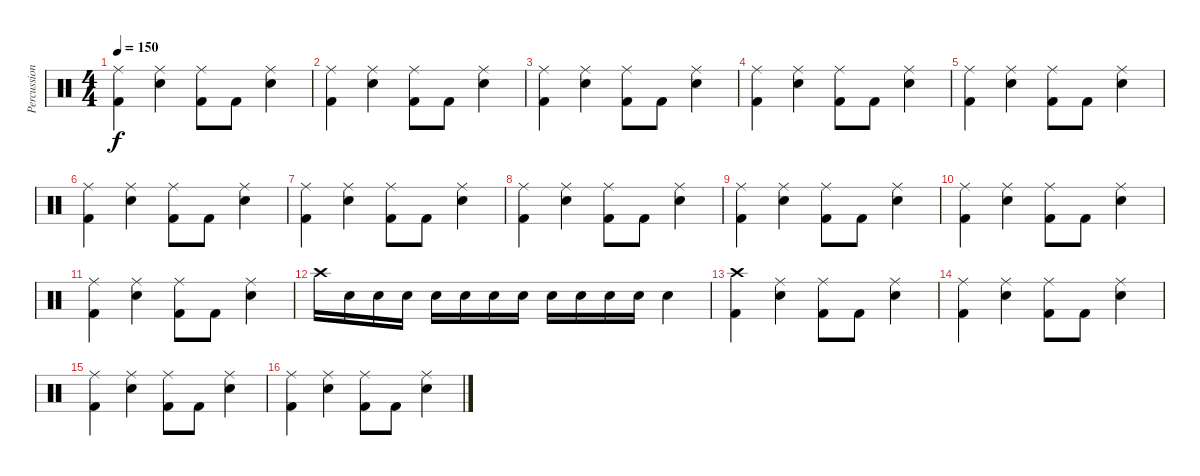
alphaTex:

\track ("Percussions" "Percussion") {instrument percussion}
\staff {score}
\articulation defaults
\ts (4 4)
\tempo 150
\clef neutral
\ks c
("Ride (middle)" "Kick (hit) 2").4{dy f} ("Ride (middle)" "Electric Snare (hit)").4 ("Ride (middle)" "Kick (hit) 2").8 "Kick (hit) 2".8 ("Ride (middle)" "Electric Snare (hit)").4 |
("Ride (middle)" "Kick (hit) 2").4 ("Ride (middle)" "Electric Snare (hit)").4 ("Ride (middle)" "Kick (hit) 2").8 "Kick (hit) 2".8 ("Ride (middle)" "Electric Snare (hit)").4 |
("Ride (middle)" "Kick (hit) 2").4 ("Ride (middle)" "Electric Snare (hit)").4 ("Ride (middle)" "Kick (hit) 2").8 "Kick (hit) 2".8 ("Ride (middle)" "Electric Snare (hit)").4 |
("Ride (middle)" "Kick (hit) 2").4 ("Ride (middle)" "Electric Snare (hit)").4 ("Ride (middle)" "Kick (hit) 2").8 "Kick (hit) 2".8 ("Ride (middle)" "Electric Snare (hit)").4 |
("Ride (middle)" "Kick (hit) 2").4 ("Ride (middle)" "Electric Snare (hit)").4 ("Ride (middle)" "Kick (hit) 2").8 "Kick (hit) 2".8 ("Ride (middle)" "Electric Snare (hit)").4 |
("Ride (middle)" "Kick (hit) 2").4 ("Ride (middle)" "Electric Snare (hit)").4 ("Ride (middle)" "Kick (hit) 2").8 "Kick (hit) 2".8 ("Ride (middle)" "Electric Snare (hit)").4 |
("Ride (middle)" "Kick (hit) 2").4 ("Ride (middle)" "Electric Snare (hit)").4 ("Ride (middle)" "Kick (hit) 2").8 "Kick (hit) 2".8 ("Ride (middle)" "Electric Snare (hit)").4 |
("Ride (middle)" "Kick (hit) 2").4 ("Ride (middle)" "Electric Snare (hit)").4 ("Ride (middle)" "Kick (hit) 2").8 "Kick (hit) 2".8 ("Ride (middle)" "Electric Snare (hit)").4 |
("Ride (middle)" "Kick (hit) 2").4 ("Ride (middle)" "Electric Snare (hit)").4 ("Ride (middle)" "Kick (hit) 2").8 "Kick (hit) 2".8 ("Ride (middle)" "Electric Snare (hit)").4 |
("Ride (middle)" "Kick (hit) 2").4 ("Ride (middle)" "Electric Snare (hit)").4 ("Ride (middle)" "Kick (hit) 2").8 "Kick (hit) 2".8 ("Ride (middle)" "Electric Snare (hit)").4 |
("Ride (middle)" "Kick (hit) 2").4 ("Ride (middle)" "Electric Snare (hit)").4 ("Ride (middle)" "Kick (hit) 2").8 "Kick (hit) 2".8 ("Ride (middle)" "Electric Snare (hit)").4 |
"Crash high (hit)".16 "Electric Snare (hit)".16 "Electric Snare (hit)".16 "Electric Snare (hit)".16 "Electric Snare (hit)".16 "Electric Snare (hit)".16 "Electric Snare (hit)".16 "Electric Snare (hit)".16 "Electric Snare (hit)".16 "Electric Snare (hit)".16 "Electric Snare (hit)".16 "Electric Snare (hit)".16 "Electric Snare (hit)".4 |
("Crash high (hit)" "Kick (hit) 2").4 ("Ride (middle)" "Electric Snare (hit)").4 ("Ride (middle)" "Kick (hit) 2").8 "Kick (hit) 2".8 ("Ride (middle)" "Electric Snare (hit)").4 |
("Ride (middle)" "Kick (hit) 2").4 ("Ride (middle)" "Electric Snare (hit)").4 ("Ride (middle)" "Kick (hit) 2").8 "Kick (hit) 2".8 ("Ride (middle)" "Electric Snare (hit)").4 |
("Ride (middle)" "Kick (hit) 2").4 ("Ride (middle)" "Electric Snare (hit)").4 ("Ride (middle)" "Kick (hit) 2").8 "Kick (hit) 2".8 ("Ride (middle)" "Electric Snare (hit)").4 |
("Ride (middle)" "Kick (hit) 2").4 ("Ride (middle)" "Electric Snare (hit)").4 ("Ride (middle)" "Kick (hit) 2").8 "Kick (hit) 2".8 ("Ride (middle)" "Electric Snare (hit)").4
